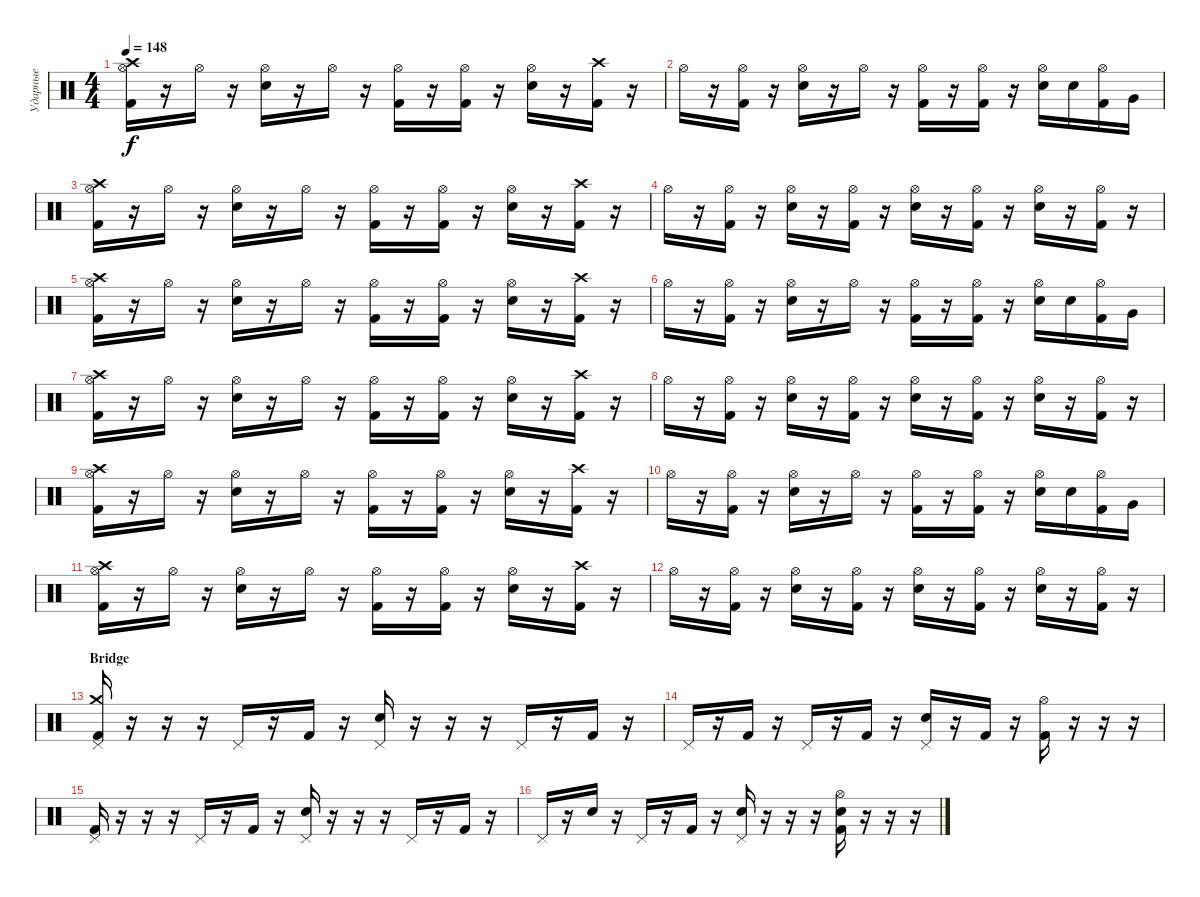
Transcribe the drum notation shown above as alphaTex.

\track ("Ударные" "Ударные") {instrument percussion}
\staff {score}
\articulation defaults
\ts (4 4)
\tempo 148
\clef neutral
\ks c
("Crash high (hit)" "Hi-Hat (open)" "Kick (hit) 2").16{dy f} r.16 "Hi-Hat (open)".16 r.16 ("Hi-Hat (open)" "Electric Snare (hit)").16 r.16 "Hi-Hat (open)".16 r.16 ("Hi-Hat (open)" "Kick (hit) 2").16 r.16 ("Hi-Hat (open)" "Kick (hit) 2").16 r.16 ("Hi-Hat (open)" "Electric Snare (hit)").16 r.16 ("Crash high (hit)" "Kick (hit) 2").16 r.16 |
"Hi-Hat (open)".16 r.16 ("Hi-Hat (open)" "Kick (hit) 2").16 r.16 ("Hi-Hat (open)" "Electric Snare (hit)").16 r.16 "Hi-Hat (open)".16 r.16 ("Hi-Hat (open)" "Kick (hit) 2").16 r.16 ("Hi-Hat (open)" "Kick (hit) 2").16 r.16 ("Hi-Hat (open)" "Electric Snare (hit)").16 "Electric Snare (hit)".16 ("Hi-Hat (open)" "Kick (hit) 2").16 "Very Low Tom (hit)".16 |
("Crash high (hit)" "Hi-Hat (open)" "Kick (hit) 2").16 r.16 "Hi-Hat (open)".16 r.16 ("Hi-Hat (open)" "Electric Snare (hit)").16 r.16 "Hi-Hat (open)".16 r.16 ("Hi-Hat (open)" "Kick (hit) 2").16 r.16 ("Hi-Hat (open)" "Kick (hit) 2").16 r.16 ("Hi-Hat (open)" "Electric Snare (hit)").16 r.16 ("Crash high (hit)" "Kick (hit) 2").16 r.16 |
"Hi-Hat (open)".16 r.16 ("Hi-Hat (open)" "Kick (hit) 2").16 r.16 ("Hi-Hat (open)" "Electric Snare (hit)").16 r.16 ("Hi-Hat (open)" "Kick (hit) 2").16 r.16 ("Hi-Hat (open)" "Electric Snare (hit)").16 r.16 ("Hi-Hat (open)" "Kick (hit) 2").16 r.16 ("Hi-Hat (open)" "Electric Snare (hit)").16 r.16 ("Hi-Hat (open)" "Kick (hit) 2").16 r.16 |
("Crash high (hit)" "Hi-Hat (open)" "Kick (hit) 2").16 r.16 "Hi-Hat (open)".16 r.16 ("Hi-Hat (open)" "Electric Snare (hit)").16 r.16 "Hi-Hat (open)".16 r.16 ("Hi-Hat (open)" "Kick (hit) 2").16 r.16 ("Hi-Hat (open)" "Kick (hit) 2").16 r.16 ("Hi-Hat (open)" "Electric Snare (hit)").16 r.16 ("Crash high (hit)" "Kick (hit) 2").16 r.16 |
"Hi-Hat (open)".16 r.16 ("Hi-Hat (open)" "Kick (hit) 2").16 r.16 ("Hi-Hat (open)" "Electric Snare (hit)").16 r.16 "Hi-Hat (open)".16 r.16 ("Hi-Hat (open)" "Kick (hit) 2").16 r.16 ("Hi-Hat (open)" "Kick (hit) 2").16 r.16 ("Hi-Hat (open)" "Electric Snare (hit)").16 "Electric Snare (hit)".16 ("Hi-Hat (open)" "Kick (hit) 2").16 "Very Low Tom (hit)".16 |
("Crash high (hit)" "Hi-Hat (open)" "Kick (hit) 2").16 r.16 "Hi-Hat (open)".16 r.16 ("Hi-Hat (open)" "Electric Snare (hit)").16 r.16 "Hi-Hat (open)".16 r.16 ("Hi-Hat (open)" "Kick (hit) 2").16 r.16 ("Hi-Hat (open)" "Kick (hit) 2").16 r.16 ("Hi-Hat (open)" "Electric Snare (hit)").16 r.16 ("Crash high (hit)" "Kick (hit) 2").16 r.16 |
"Hi-Hat (open)".16 r.16 ("Hi-Hat (open)" "Kick (hit) 2").16 r.16 ("Hi-Hat (open)" "Electric Snare (hit)").16 r.16 ("Hi-Hat (open)" "Kick (hit) 2").16 r.16 ("Hi-Hat (open)" "Electric Snare (hit)").16 r.16 ("Hi-Hat (open)" "Kick (hit) 2").16 r.16 ("Hi-Hat (open)" "Electric Snare (hit)").16 r.16 ("Hi-Hat (open)" "Kick (hit) 2").16 r.16 |
("Crash high (hit)" "Hi-Hat (open)" "Kick (hit) 2").16 r.16 "Hi-Hat (open)".16 r.16 ("Hi-Hat (open)" "Electric Snare (hit)").16 r.16 "Hi-Hat (open)".16 r.16 ("Hi-Hat (open)" "Kick (hit) 2").16 r.16 ("Hi-Hat (open)" "Kick (hit) 2").16 r.16 ("Hi-Hat (open)" "Electric Snare (hit)").16 r.16 ("Crash high (hit)" "Kick (hit) 2").16 r.16 |
"Hi-Hat (open)".16 r.16 ("Hi-Hat (open)" "Kick (hit) 2").16 r.16 ("Hi-Hat (open)" "Electric Snare (hit)").16 r.16 "Hi-Hat (open)".16 r.16 ("Hi-Hat (open)" "Kick (hit) 2").16 r.16 ("Hi-Hat (open)" "Kick (hit) 2").16 r.16 ("Hi-Hat (open)" "Electric Snare (hit)").16 "Electric Snare (hit)".16 ("Hi-Hat (open)" "Kick (hit) 2").16 "Very Low Tom (hit)".16 |
("Crash high (hit)" "Hi-Hat (open)" "Kick (hit) 2").16 r.16 "Hi-Hat (open)".16 r.16 ("Hi-Hat (open)" "Electric Snare (hit)").16 r.16 "Hi-Hat (open)".16 r.16 ("Hi-Hat (open)" "Kick (hit) 2").16 r.16 ("Hi-Hat (open)" "Kick (hit) 2").16 r.16 ("Hi-Hat (open)" "Electric Snare (hit)").16 r.16 ("Crash high (hit)" "Kick (hit) 2").16 r.16 |
"Hi-Hat (open)".16 r.16 ("Hi-Hat (open)" "Kick (hit) 2").16 r.16 ("Hi-Hat (open)" "Electric Snare (hit)").16 r.16 ("Hi-Hat (open)" "Kick (hit) 2").16 r.16 ("Hi-Hat (open)" "Electric Snare (hit)").16 r.16 ("Hi-Hat (open)" "Kick (hit) 2").16 r.16 ("Hi-Hat (open)" "Electric Snare (hit)").16 r.16 ("Hi-Hat (open)" "Kick (hit) 2").16 r.16 |
\section ("" "Bridge")
("Crash medium (hit)" "Pedal Hi-Hat (hit)" "Kick (hit) 2").16 r.16 r.16 r.16 "Pedal Hi-Hat (hit)".16 r.16 "Kick (hit) 2".16 r.16 ("Pedal Hi-Hat (hit)" "Electric Snare (hit)").16 r.16 r.16 r.16 "Pedal Hi-Hat (hit)".16 r.16 "Kick (hit) 2".16 r.16 |
"Pedal Hi-Hat (hit)".16 r.16 "Kick (hit) 2".16 r.16 "Pedal Hi-Hat (hit)".16 r.16 "Kick (hit) 2".16 r.16 ("Pedal Hi-Hat (hit)" "Electric Snare (hit)").16 r.16 "Kick (hit) 2".16 r.16 ("Hi-Hat (open)" "Kick (hit) 2").16 r.16 r.16 r.16 |
("Pedal Hi-Hat (hit)" "Kick (hit) 2").16 r.16 r.16 r.16 "Pedal Hi-Hat (hit)".16 r.16 "Kick (hit) 2".16 r.16 ("Pedal Hi-Hat (hit)" "Electric Snare (hit)").16 r.16 r.16 r.16 "Pedal Hi-Hat (hit)".16 r.16 "Kick (hit) 2".16 r.16 |
"Pedal Hi-Hat (hit)".16 r.16 "Electric Snare (hit)".16 r.16 "Pedal Hi-Hat (hit)".16 r.16 "Kick (hit) 2".16 r.16 ("Pedal Hi-Hat (hit)" "Electric Snare (hit)").16 r.16 r.16 r.16 ("Hi-Hat (open)" "Electric Snare (hit)" "Kick (hit) 2").16 r.16 r.16 r.16
